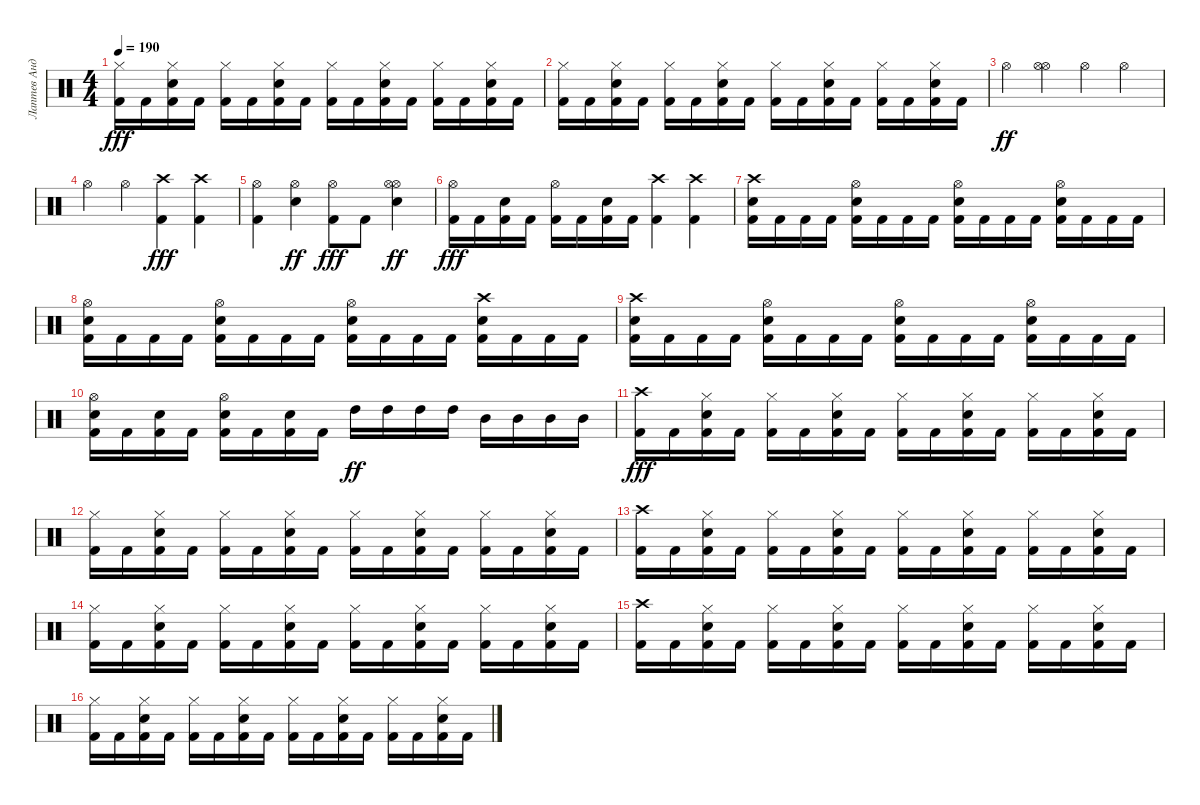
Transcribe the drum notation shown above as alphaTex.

\track ("Лаптев Андрей" "Лаптев Анд") {instrument percussion}
\staff {score}
\articulation defaults
\ts (4 4)
\tempo 190
\clef neutral
\ks c
("Hi-Hat (closed)" "Kick (hit) 2").16{dy fff} "Kick (hit) 2".16 ("Electric Snare (hit)" "Hi-Hat (closed)" "Kick (hit) 2").16 "Kick (hit) 2".16 ("Hi-Hat (closed)" "Kick (hit) 2").16 "Kick (hit) 2".16 ("Hi-Hat (closed)" "Electric Snare (hit)" "Kick (hit) 2").16 "Kick (hit) 2".16 ("Hi-Hat (closed)" "Kick (hit) 2").16 "Kick (hit) 2".16 ("Hi-Hat (closed)" "Electric Snare (hit)" "Kick (hit) 2").16 "Kick (hit) 2".16 ("Hi-Hat (closed)" "Kick (hit) 2").16 "Kick (hit) 2".16 ("Hi-Hat (closed)" "Electric Snare (hit)" "Kick (hit) 2").16 "Kick (hit) 2".16 |
("Hi-Hat (closed)" "Kick (hit) 2").16 "Kick (hit) 2".16 ("Electric Snare (hit)" "Hi-Hat (closed)" "Kick (hit) 2").16 "Kick (hit) 2".16 ("Hi-Hat (closed)" "Kick (hit) 2").16 "Kick (hit) 2".16 ("Hi-Hat (closed)" "Electric Snare (hit)" "Kick (hit) 2").16 "Kick (hit) 2".16 ("Hi-Hat (closed)" "Kick (hit) 2").16 "Kick (hit) 2".16 ("Hi-Hat (closed)" "Electric Snare (hit)" "Kick (hit) 2").16 "Kick (hit) 2".16 ("Hi-Hat (closed)" "Kick (hit) 2").16 "Kick (hit) 2".16 ("Hi-Hat (closed)" "Electric Snare (hit)" "Kick (hit) 2").16 "Kick (hit) 2".16 |
"Hi-Hat (open)".4{dy ff} ("Hi-Hat (open)" "Hi-Hat (open)").4 "Hi-Hat (open)".4 "Hi-Hat (open)".4 |
"Hi-Hat (open)".4 "Hi-Hat (open)".4 ("Crash high (hit)" "Kick (hit) 2").4{dy fff} ("Crash high (hit)" "Kick (hit) 2").4 |
("Hi-Hat (open)" "Kick (hit) 2").4 ("Hi-Hat (open)" "Electric Snare (hit)").4{dy ff} ("Hi-Hat (open)" "Kick (hit) 2").8{dy fff} "Kick (hit) 2".8 ("Electric Snare (hit)" "Hi-Hat (open)" "Hi-Hat (open)").4{dy ff} |
("Hi-Hat (open)" "Kick (hit) 2").16{dy fff} "Kick (hit) 2".16 ("Electric Snare (hit)" "Kick (hit) 2").16 "Kick (hit) 2".16 ("Hi-Hat (open)" "Kick (hit) 2").16 "Kick (hit) 2".16 ("Electric Snare (hit)" "Kick (hit) 2").16 "Kick (hit) 2".16 ("Crash high (hit)" "Kick (hit) 2").4 ("Crash high (hit)" "Kick (hit) 2").4 |
("Electric Snare (hit)" "Crash high (hit)" "Kick (hit) 2").16 "Kick (hit) 2".16 "Kick (hit) 2".16 "Kick (hit) 2".16 ("Hi-Hat (open)" "Electric Snare (hit)" "Kick (hit) 2").16 "Kick (hit) 2".16 "Kick (hit) 2".16 "Kick (hit) 2".16 ("Electric Snare (hit)" "Hi-Hat (open)" "Kick (hit) 2").16 "Kick (hit) 2".16 "Kick (hit) 2".16 "Kick (hit) 2".16 ("Electric Snare (hit)" "Hi-Hat (open)" "Kick (hit) 2").16 "Kick (hit) 2".16 "Kick (hit) 2".16 "Kick (hit) 2".16 |
("Electric Snare (hit)" "Hi-Hat (open)" "Kick (hit) 2").16 "Kick (hit) 2".16 "Kick (hit) 2".16 "Kick (hit) 2".16 ("Electric Snare (hit)" "Hi-Hat (open)" "Kick (hit) 2").16 "Kick (hit) 2".16 "Kick (hit) 2".16 "Kick (hit) 2".16 ("Electric Snare (hit)" "Hi-Hat (open)" "Kick (hit) 2").16 "Kick (hit) 2".16 "Kick (hit) 2".16 "Kick (hit) 2".16 ("Electric Snare (hit)" "Crash high (hit)" "Kick (hit) 2").16 "Kick (hit) 2".16 "Kick (hit) 2".16 "Kick (hit) 2".16 |
("Electric Snare (hit)" "Crash high (hit)" "Kick (hit) 2").16 "Kick (hit) 2".16 "Kick (hit) 2".16 "Kick (hit) 2".16 ("Electric Snare (hit)" "Hi-Hat (open)" "Kick (hit) 2").16 "Kick (hit) 2".16 "Kick (hit) 2".16 "Kick (hit) 2".16 ("Electric Snare (hit)" "Hi-Hat (open)" "Kick (hit) 2").16 "Kick (hit) 2".16 "Kick (hit) 2".16 "Kick (hit) 2".16 ("Electric Snare (hit)" "Hi-Hat (open)" "Kick (hit) 2").16 "Kick (hit) 2".16 "Kick (hit) 2".16 "Kick (hit) 2".16 |
("Electric Snare (hit)" "Hi-Hat (open)" "Kick (hit) 2").16 "Kick (hit) 2".16 ("Electric Snare (hit)" "Kick (hit) 2").16 "Kick (hit) 2".16 ("Electric Snare (hit)" "Hi-Hat (open)" "Kick (hit) 2").16 "Kick (hit) 2".16 ("Electric Snare (hit)" "Kick (hit) 2").16 "Kick (hit) 2".16 "High Tom (hit)".16{dy ff} "High Tom (hit)".16 "High Tom (hit)".16 "High Tom (hit)".16 "Mid Tom (hit)".16 "Mid Tom (hit)".16 "Mid Tom (hit)".16 "Mid Tom (hit)".16 |
("Crash high (hit)" "Kick (hit) 2").16{dy fff} "Kick (hit) 2".16 ("Electric Snare (hit)" "Hi-Hat (closed)" "Kick (hit) 2").16 "Kick (hit) 2".16 ("Hi-Hat (closed)" "Kick (hit) 2").16 "Kick (hit) 2".16 ("Electric Snare (hit)" "Hi-Hat (closed)" "Kick (hit) 2").16 "Kick (hit) 2".16 ("Hi-Hat (closed)" "Kick (hit) 2").16 "Kick (hit) 2".16 ("Hi-Hat (closed)" "Electric Snare (hit)" "Kick (hit) 2").16 "Kick (hit) 2".16 ("Hi-Hat (closed)" "Kick (hit) 2").16 "Kick (hit) 2".16 ("Hi-Hat (closed)" "Electric Snare (hit)" "Kick (hit) 2").16 "Kick (hit) 2".16 |
("Hi-Hat (closed)" "Kick (hit) 2").16 "Kick (hit) 2".16 ("Electric Snare (hit)" "Hi-Hat (closed)" "Kick (hit) 2").16 "Kick (hit) 2".16 ("Hi-Hat (closed)" "Kick (hit) 2").16 "Kick (hit) 2".16 ("Electric Snare (hit)" "Hi-Hat (closed)" "Kick (hit) 2").16 "Kick (hit) 2".16 ("Hi-Hat (closed)" "Kick (hit) 2").16 "Kick (hit) 2".16 ("Electric Snare (hit)" "Hi-Hat (closed)" "Kick (hit) 2").16 "Kick (hit) 2".16 ("Hi-Hat (closed)" "Kick (hit) 2").16 "Kick (hit) 2".16 ("Electric Snare (hit)" "Hi-Hat (closed)" "Kick (hit) 2").16 "Kick (hit) 2".16 |
("Crash high (hit)" "Kick (hit) 2").16 "Kick (hit) 2".16 ("Electric Snare (hit)" "Hi-Hat (closed)" "Kick (hit) 2").16 "Kick (hit) 2".16 ("Hi-Hat (closed)" "Kick (hit) 2").16 "Kick (hit) 2".16 ("Electric Snare (hit)" "Hi-Hat (closed)" "Kick (hit) 2").16 "Kick (hit) 2".16 ("Hi-Hat (closed)" "Kick (hit) 2").16 "Kick (hit) 2".16 ("Hi-Hat (closed)" "Electric Snare (hit)" "Kick (hit) 2").16 "Kick (hit) 2".16 ("Hi-Hat (closed)" "Kick (hit) 2").16 "Kick (hit) 2".16 ("Hi-Hat (closed)" "Electric Snare (hit)" "Kick (hit) 2").16 "Kick (hit) 2".16 |
("Hi-Hat (closed)" "Kick (hit) 2").16 "Kick (hit) 2".16 ("Electric Snare (hit)" "Hi-Hat (closed)" "Kick (hit) 2").16 "Kick (hit) 2".16 ("Hi-Hat (closed)" "Kick (hit) 2").16 "Kick (hit) 2".16 ("Electric Snare (hit)" "Hi-Hat (closed)" "Kick (hit) 2").16 "Kick (hit) 2".16 ("Hi-Hat (closed)" "Kick (hit) 2").16 "Kick (hit) 2".16 ("Electric Snare (hit)" "Hi-Hat (closed)" "Kick (hit) 2").16 "Kick (hit) 2".16 ("Hi-Hat (closed)" "Kick (hit) 2").16 "Kick (hit) 2".16 ("Electric Snare (hit)" "Hi-Hat (closed)" "Kick (hit) 2").16 "Kick (hit) 2".16 |
("Crash high (hit)" "Kick (hit) 2").16 "Kick (hit) 2".16 ("Electric Snare (hit)" "Hi-Hat (closed)" "Kick (hit) 2").16 "Kick (hit) 2".16 ("Hi-Hat (closed)" "Kick (hit) 2").16 "Kick (hit) 2".16 ("Electric Snare (hit)" "Hi-Hat (closed)" "Kick (hit) 2").16 "Kick (hit) 2".16 ("Hi-Hat (closed)" "Kick (hit) 2").16 "Kick (hit) 2".16 ("Hi-Hat (closed)" "Electric Snare (hit)" "Kick (hit) 2").16 "Kick (hit) 2".16 ("Hi-Hat (closed)" "Kick (hit) 2").16 "Kick (hit) 2".16 ("Hi-Hat (closed)" "Electric Snare (hit)" "Kick (hit) 2").16 "Kick (hit) 2".16 |
("Hi-Hat (closed)" "Kick (hit) 2").16 "Kick (hit) 2".16 ("Electric Snare (hit)" "Hi-Hat (closed)" "Kick (hit) 2").16 "Kick (hit) 2".16 ("Hi-Hat (closed)" "Kick (hit) 2").16 "Kick (hit) 2".16 ("Electric Snare (hit)" "Hi-Hat (closed)" "Kick (hit) 2").16 "Kick (hit) 2".16 ("Hi-Hat (closed)" "Kick (hit) 2").16 "Kick (hit) 2".16 ("Electric Snare (hit)" "Hi-Hat (closed)" "Kick (hit) 2").16 "Kick (hit) 2".16 ("Hi-Hat (closed)" "Kick (hit) 2").16 "Kick (hit) 2".16 ("Electric Snare (hit)" "Hi-Hat (closed)" "Kick (hit) 2").16 "Kick (hit) 2".16
